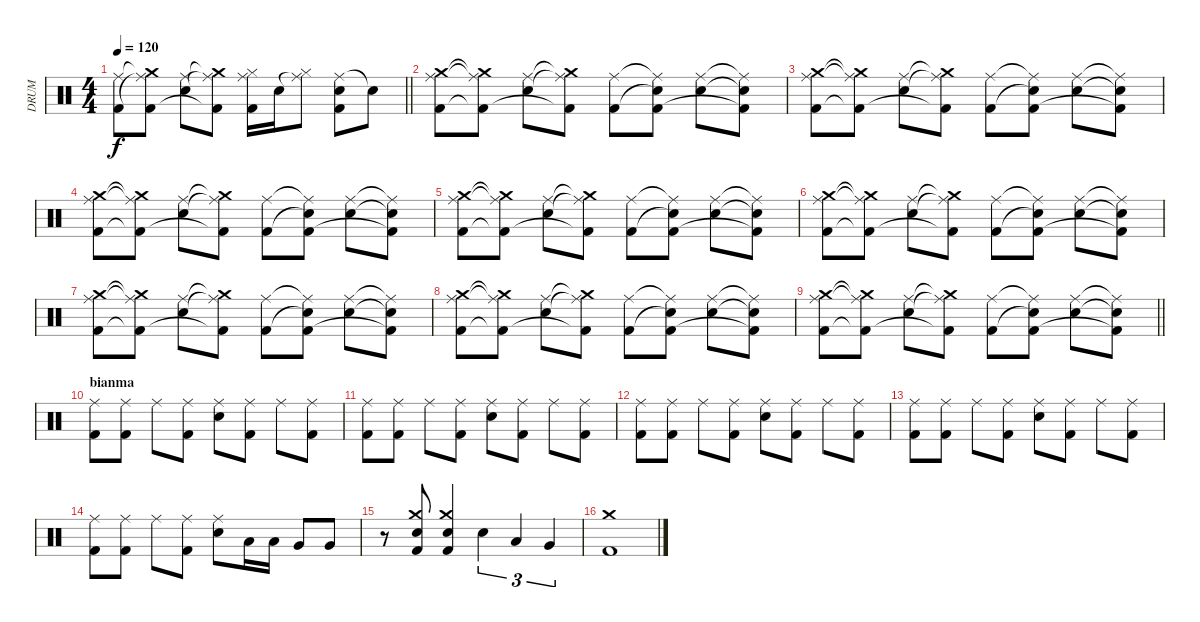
\track ("DRUM" "DRUM") {instrument percussion}
\staff {score}
\articulation defaults
\ts (4 4)
\tempo 120
\clef neutral
\barLineRight lightlight
\ks c
("Ride (middle)" "Kick (hit) 2").8{dy f} ("Crash medium (hit)"{t} "Ride (middle)"{t} "Kick (hit) 2"{t}).8 ("Ride (middle)" "Electric Snare (hit)").8 ("Crash medium (hit)"{t} "Ride (middle)"{t} "Kick (hit) 2"{t}).8 ("Ride (middle)" "Hi-Hat (closed)" "Kick (hit) 2").16 "Electric Snare (hit)".16 ("Ride (middle)"{t} "Hi-Hat (closed)").8 ("Ride (middle)" "Electric Snare (hit)" "Kick (hit) 2").8 "Electric Snare (hit)"{t}.8 |
("Crash medium (hit)" "Ride (middle)" "Kick (hit) 2").8 ("Crash medium (hit)"{t} "Ride (middle)"{t} "Kick (hit) 2"{t}).8 ("Ride (middle)" "Electric Snare (hit)").8 ("Crash medium (hit)"{t} "Ride (middle)"{t} "Kick (hit) 2"{t}).8 ("Ride (middle)" "Kick (hit) 2").8 ("Ride (middle)"{t} "Electric Snare (hit)"{t} "Kick (hit) 2").8 ("Ride (middle)" "Electric Snare (hit)").8 ("Ride (middle)"{t} "Electric Snare (hit)"{t} "Kick (hit) 2"{t}).8 |
("Crash medium (hit)" "Ride (middle)" "Kick (hit) 2").8 ("Crash medium (hit)"{t} "Ride (middle)"{t} "Kick (hit) 2"{t}).8 ("Ride (middle)" "Electric Snare (hit)").8 ("Crash medium (hit)"{t} "Ride (middle)"{t} "Kick (hit) 2"{t}).8 ("Ride (middle)" "Kick (hit) 2").8 ("Ride (middle)"{t} "Electric Snare (hit)"{t} "Kick (hit) 2").8 ("Ride (middle)" "Electric Snare (hit)").8 ("Ride (middle)"{t} "Electric Snare (hit)"{t} "Kick (hit) 2"{t}).8 |
("Crash medium (hit)" "Ride (middle)" "Kick (hit) 2").8 ("Crash medium (hit)"{t} "Ride (middle)"{t} "Kick (hit) 2"{t}).8 ("Ride (middle)" "Electric Snare (hit)").8 ("Crash medium (hit)"{t} "Ride (middle)"{t} "Kick (hit) 2"{t}).8 ("Ride (middle)" "Kick (hit) 2").8 ("Ride (middle)"{t} "Electric Snare (hit)"{t} "Kick (hit) 2").8 ("Ride (middle)" "Electric Snare (hit)").8 ("Ride (middle)"{t} "Electric Snare (hit)"{t} "Kick (hit) 2"{t}).8 |
("Crash medium (hit)" "Ride (middle)" "Kick (hit) 2").8 ("Crash medium (hit)"{t} "Ride (middle)"{t} "Kick (hit) 2"{t}).8 ("Ride (middle)" "Electric Snare (hit)").8 ("Crash medium (hit)"{t} "Ride (middle)"{t} "Kick (hit) 2"{t}).8 ("Ride (middle)" "Kick (hit) 2").8 ("Ride (middle)"{t} "Electric Snare (hit)"{t} "Kick (hit) 2").8 ("Ride (middle)" "Electric Snare (hit)").8 ("Ride (middle)"{t} "Electric Snare (hit)"{t} "Kick (hit) 2"{t}).8 |
("Crash medium (hit)" "Ride (middle)" "Kick (hit) 2").8 ("Crash medium (hit)"{t} "Ride (middle)"{t} "Kick (hit) 2"{t}).8 ("Ride (middle)" "Electric Snare (hit)").8 ("Crash medium (hit)"{t} "Ride (middle)"{t} "Kick (hit) 2"{t}).8 ("Ride (middle)" "Kick (hit) 2").8 ("Ride (middle)"{t} "Electric Snare (hit)"{t} "Kick (hit) 2").8 ("Ride (middle)" "Electric Snare (hit)").8 ("Ride (middle)"{t} "Electric Snare (hit)"{t} "Kick (hit) 2"{t}).8 |
("Crash medium (hit)" "Ride (middle)" "Kick (hit) 2").8 ("Crash medium (hit)"{t} "Ride (middle)"{t} "Kick (hit) 2"{t}).8 ("Ride (middle)" "Electric Snare (hit)").8 ("Crash medium (hit)"{t} "Ride (middle)"{t} "Kick (hit) 2"{t}).8 ("Ride (middle)" "Kick (hit) 2").8 ("Ride (middle)"{t} "Electric Snare (hit)"{t} "Kick (hit) 2").8 ("Ride (middle)" "Electric Snare (hit)").8 ("Ride (middle)"{t} "Electric Snare (hit)"{t} "Kick (hit) 2"{t}).8 |
("Crash medium (hit)" "Ride (middle)" "Kick (hit) 2").8 ("Crash medium (hit)"{t} "Ride (middle)"{t} "Kick (hit) 2"{t}).8 ("Ride (middle)" "Electric Snare (hit)").8 ("Crash medium (hit)"{t} "Ride (middle)"{t} "Kick (hit) 2"{t}).8 ("Ride (middle)" "Kick (hit) 2").8 ("Ride (middle)"{t} "Electric Snare (hit)"{t} "Kick (hit) 2").8 ("Ride (middle)" "Electric Snare (hit)").8 ("Ride (middle)"{t} "Electric Snare (hit)"{t} "Kick (hit) 2"{t}).8 |
\barLineRight lightlight
("Crash medium (hit)" "Ride (middle)" "Kick (hit) 2").8 ("Crash medium (hit)"{t} "Ride (middle)"{t} "Kick (hit) 2"{t}).8 ("Ride (middle)" "Electric Snare (hit)").8 ("Crash medium (hit)"{t} "Ride (middle)"{t} "Kick (hit) 2"{t}).8 ("Ride (middle)" "Kick (hit) 2").8 ("Ride (middle)"{t} "Electric Snare (hit)"{t} "Kick (hit) 2").8 ("Ride (middle)" "Electric Snare (hit)").8 ("Ride (middle)"{t} "Electric Snare (hit)"{t} "Kick (hit) 2"{t}).8 |
\section ("" "bianma ")
("Ride (middle)" "Kick (hit) 2").8 ("Ride (middle)" "Kick (hit) 2").8 "Ride (middle)".8 ("Ride (middle)" "Kick (hit) 2").8 ("Ride (middle)" "Electric Snare (hit)").8 ("Ride (middle)" "Kick (hit) 2").8 "Ride (middle)".8 ("Ride (middle)" "Kick (hit) 2").8 |
("Ride (middle)" "Kick (hit) 2").8 ("Ride (middle)" "Kick (hit) 2").8 "Ride (middle)".8 ("Ride (middle)" "Kick (hit) 2").8 ("Ride (middle)" "Electric Snare (hit)").8 ("Ride (middle)" "Kick (hit) 2").8 "Ride (middle)".8 ("Ride (middle)" "Kick (hit) 2").8 |
("Ride (middle)" "Kick (hit) 2").8 ("Ride (middle)" "Kick (hit) 2").8 "Ride (middle)".8 ("Ride (middle)" "Kick (hit) 2").8 ("Ride (middle)" "Electric Snare (hit)").8 ("Ride (middle)" "Kick (hit) 2").8 "Ride (middle)".8 ("Ride (middle)" "Kick (hit) 2").8 |
("Ride (middle)" "Kick (hit) 2").8 ("Ride (middle)" "Kick (hit) 2").8 "Ride (middle)".8 ("Ride (middle)" "Kick (hit) 2").8 ("Ride (middle)" "Electric Snare (hit)").8 ("Ride (middle)" "Kick (hit) 2").8 "Ride (middle)".8 ("Ride (middle)" "Kick (hit) 2").8 |
("Ride (middle)" "Kick (hit) 2").8 ("Ride (middle)" "Kick (hit) 2").8 "Ride (middle)".8 ("Ride (middle)" "Kick (hit) 2").8 ("Ride (middle)" "Electric Snare (hit)").8 "Low Tom (hit)".16 "Low Tom (hit)".16 "Very Low Tom (hit)".8 "Very Low Tom (hit)".8 |
r.8 ("Crash medium (hit)" "Electric Snare (hit)" "Kick (hit) 2").8 ("Crash medium (hit)" "Electric Snare (hit)" "Kick (hit) 2").4 "Electric Snare (hit)".4{tu (3 2)} "Low Tom (hit)".4{tu (3 2)} "Very Low Tom (hit)".4{tu (3 2)} |
("Crash medium (hit)" "Kick (hit) 2").1
